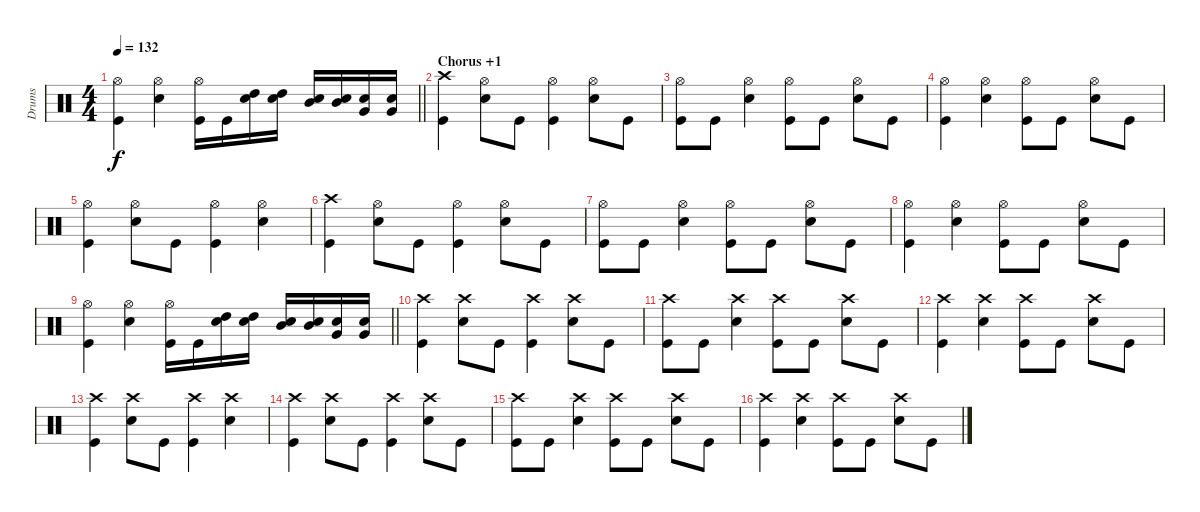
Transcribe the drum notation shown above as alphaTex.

\track ("Drums" "Drums") {instrument percussion}
\staff {score}
\articulation defaults
\ts (4 4)
\tempo 132
\clef neutral
\barLineRight lightlight
\ks c
("Hi-Hat (open)" "Kick (hit)").4{dy f} ("Hi-Hat (open)" "Electric Snare (hit)").4 ("Hi-Hat (open)" "Kick (hit)").16 "Kick (hit)".16 ("High Tom (hit)" "Electric Snare (hit)").16 ("High Tom (hit)" "Electric Snare (hit)").16 ("Mid Tom (hit)" "Electric Snare (hit)").16 ("Mid Tom (hit)" "Electric Snare (hit)").16 ("Very Low Tom (hit)" "Electric Snare (hit)").16 ("Very Low Tom (hit)" "Electric Snare (hit)").16 |
\section ("" "Chorus +1")
("Crash high (hit)" "Kick (hit)").4 ("Hi-Hat (open)" "Electric Snare (hit)").8 "Kick (hit)".8 ("Hi-Hat (open)" "Kick (hit)").4 ("Hi-Hat (open)" "Electric Snare (hit)").8 "Kick (hit)".8 |
("Hi-Hat (open)" "Kick (hit)").8 "Kick (hit)".8 ("Hi-Hat (open)" "Electric Snare (hit)").4 ("Hi-Hat (open)" "Kick (hit)").8 "Kick (hit)".8 ("Hi-Hat (open)" "Electric Snare (hit)").8 "Kick (hit)".8 |
("Hi-Hat (open)" "Kick (hit)").4 ("Hi-Hat (open)" "Electric Snare (hit)").4 ("Hi-Hat (open)" "Kick (hit)").8 "Kick (hit)".8 ("Hi-Hat (open)" "Electric Snare (hit)").8 "Kick (hit)".8 |
("Hi-Hat (open)" "Kick (hit)").4 ("Hi-Hat (open)" "Electric Snare (hit)").8 "Kick (hit)".8 ("Hi-Hat (open)" "Kick (hit)").4 ("Hi-Hat (open)" "Electric Snare (hit)").4 |
("Crash high (hit)" "Kick (hit)").4 ("Hi-Hat (open)" "Electric Snare (hit)").8 "Kick (hit)".8 ("Hi-Hat (open)" "Kick (hit)").4 ("Hi-Hat (open)" "Electric Snare (hit)").8 "Kick (hit)".8 |
("Hi-Hat (open)" "Kick (hit)").8 "Kick (hit)".8 ("Hi-Hat (open)" "Electric Snare (hit)").4 ("Hi-Hat (open)" "Kick (hit)").8 "Kick (hit)".8 ("Hi-Hat (open)" "Electric Snare (hit)").8 "Kick (hit)".8 |
("Hi-Hat (open)" "Kick (hit)").4 ("Hi-Hat (open)" "Electric Snare (hit)").4 ("Hi-Hat (open)" "Kick (hit)").8 "Kick (hit)".8 ("Hi-Hat (open)" "Electric Snare (hit)").8 "Kick (hit)".8 |
\barLineRight lightlight
("Hi-Hat (open)" "Kick (hit)").4 ("Hi-Hat (open)" "Electric Snare (hit)").4 ("Hi-Hat (open)" "Kick (hit)").16 "Kick (hit)".16 ("High Tom (hit)" "Electric Snare (hit)").16 ("High Tom (hit)" "Electric Snare (hit)").16 ("Mid Tom (hit)" "Electric Snare (hit)").16 ("Mid Tom (hit)" "Electric Snare (hit)").16 ("Very Low Tom (hit)" "Electric Snare (hit)").16 ("Very Low Tom (hit)" "Electric Snare (hit)").16 |
("Crash high (hit)" "Kick (hit)").4 ("Crash high (hit)" "Electric Snare (hit)").8 "Kick (hit)".8 ("Crash high (hit)" "Kick (hit)").4 ("Crash high (hit)" "Electric Snare (hit)").8 "Kick (hit)".8 |
("Crash high (hit)" "Kick (hit)").8 "Kick (hit)".8 ("Crash high (hit)" "Electric Snare (hit)").4 ("Crash high (hit)" "Kick (hit)").8 "Kick (hit)".8 ("Crash high (hit)" "Electric Snare (hit)").8 "Kick (hit)".8 |
("Crash high (hit)" "Kick (hit)").4 ("Crash high (hit)" "Electric Snare (hit)").4 ("Crash high (hit)" "Kick (hit)").8 "Kick (hit)".8 ("Crash high (hit)" "Electric Snare (hit)").8 "Kick (hit)".8 |
("Crash high (hit)" "Kick (hit)").4 ("Crash high (hit)" "Electric Snare (hit)").8 "Kick (hit)".8 ("Crash high (hit)" "Kick (hit)").4 ("Crash high (hit)" "Electric Snare (hit)").4 |
("Crash high (hit)" "Kick (hit)").4 ("Crash high (hit)" "Electric Snare (hit)").8 "Kick (hit)".8 ("Crash high (hit)" "Kick (hit)").4 ("Crash high (hit)" "Electric Snare (hit)").8 "Kick (hit)".8 |
("Crash high (hit)" "Kick (hit)").8 "Kick (hit)".8 ("Crash high (hit)" "Electric Snare (hit)").4 ("Crash high (hit)" "Kick (hit)").8 "Kick (hit)".8 ("Crash high (hit)" "Electric Snare (hit)").8 "Kick (hit)".8 |
("Crash high (hit)" "Kick (hit)").4 ("Crash high (hit)" "Electric Snare (hit)").4 ("Crash high (hit)" "Kick (hit)").8 "Kick (hit)".8 ("Crash high (hit)" "Electric Snare (hit)").8 "Kick (hit)".8
